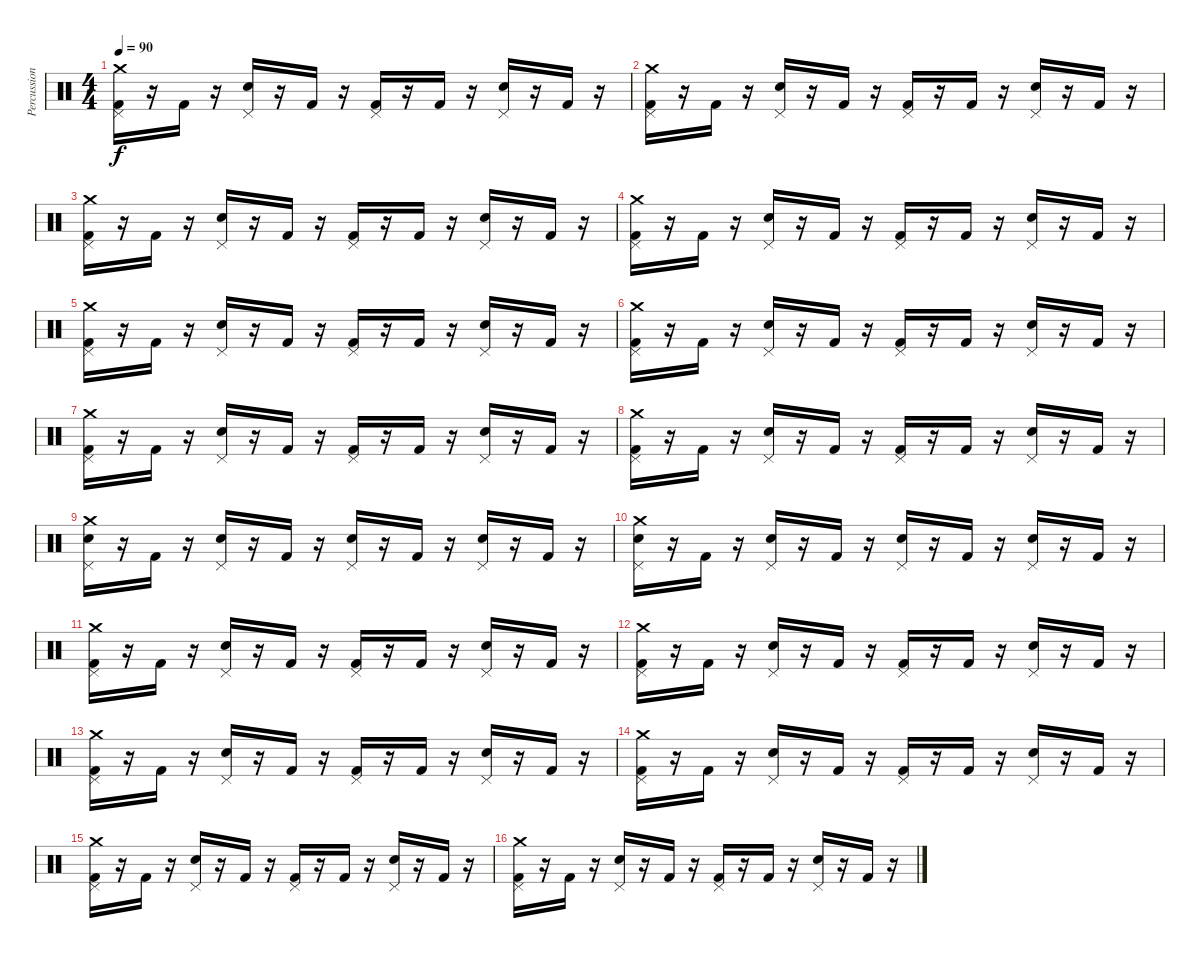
\track ("Percussion" "Percussion") {instrument percussion}
\staff {score}
\articulation defaults
\ts (4 4)
\tempo 90
\clef neutral
\ks c
("Crash medium (hit)" "Pedal Hi-Hat (hit)" "Kick (hit) 2").16{dy f} r.16 "Kick (hit) 2".16 r.16 ("Pedal Hi-Hat (hit)" "Snare (hit) 2").16 r.16 "Kick (hit) 2".16 r.16 ("Pedal Hi-Hat (hit)" "Kick (hit) 2").16 r.16 "Kick (hit) 2".16 r.16 ("Pedal Hi-Hat (hit)" "Snare (hit) 2").16 r.16 "Kick (hit) 2".16 r.16 |
("Crash medium (hit)" "Pedal Hi-Hat (hit)" "Kick (hit) 2").16 r.16 "Kick (hit) 2".16 r.16 ("Pedal Hi-Hat (hit)" "Snare (hit) 2").16 r.16 "Kick (hit) 2".16 r.16 ("Pedal Hi-Hat (hit)" "Kick (hit) 2").16 r.16 "Kick (hit) 2".16 r.16 ("Pedal Hi-Hat (hit)" "Snare (hit) 2").16 r.16 "Kick (hit) 2".16 r.16 |
("Crash medium (hit)" "Pedal Hi-Hat (hit)" "Kick (hit) 2").16 r.16 "Kick (hit) 2".16 r.16 ("Pedal Hi-Hat (hit)" "Snare (hit) 2").16 r.16 "Kick (hit) 2".16 r.16 ("Pedal Hi-Hat (hit)" "Kick (hit) 2").16 r.16 "Kick (hit) 2".16 r.16 ("Pedal Hi-Hat (hit)" "Snare (hit) 2").16 r.16 "Kick (hit) 2".16 r.16 |
("Crash medium (hit)" "Pedal Hi-Hat (hit)" "Kick (hit) 2").16 r.16 "Kick (hit) 2".16 r.16 ("Pedal Hi-Hat (hit)" "Snare (hit) 2").16 r.16 "Kick (hit) 2".16 r.16 ("Pedal Hi-Hat (hit)" "Kick (hit) 2").16 r.16 "Kick (hit) 2".16 r.16 ("Pedal Hi-Hat (hit)" "Snare (hit) 2").16 r.16 "Kick (hit) 2".16 r.16 |
("Crash medium (hit)" "Pedal Hi-Hat (hit)" "Kick (hit) 2").16 r.16 "Kick (hit) 2".16 r.16 ("Pedal Hi-Hat (hit)" "Snare (hit) 2").16 r.16 "Kick (hit) 2".16 r.16 ("Pedal Hi-Hat (hit)" "Kick (hit) 2").16 r.16 "Kick (hit) 2".16 r.16 ("Pedal Hi-Hat (hit)" "Snare (hit) 2").16 r.16 "Kick (hit) 2".16 r.16 |
("Crash medium (hit)" "Pedal Hi-Hat (hit)" "Kick (hit) 2").16 r.16 "Kick (hit) 2".16 r.16 ("Pedal Hi-Hat (hit)" "Snare (hit) 2").16 r.16 "Kick (hit) 2".16 r.16 ("Pedal Hi-Hat (hit)" "Kick (hit) 2").16 r.16 "Kick (hit) 2".16 r.16 ("Pedal Hi-Hat (hit)" "Snare (hit) 2").16 r.16 "Kick (hit) 2".16 r.16 |
("Crash medium (hit)" "Pedal Hi-Hat (hit)" "Kick (hit) 2").16 r.16 "Kick (hit) 2".16 r.16 ("Pedal Hi-Hat (hit)" "Snare (hit) 2").16 r.16 "Kick (hit) 2".16 r.16 ("Pedal Hi-Hat (hit)" "Kick (hit) 2").16 r.16 "Kick (hit) 2".16 r.16 ("Pedal Hi-Hat (hit)" "Snare (hit) 2").16 r.16 "Kick (hit) 2".16 r.16 |
("Crash medium (hit)" "Pedal Hi-Hat (hit)" "Kick (hit) 2").16 r.16 "Kick (hit) 2".16 r.16 ("Pedal Hi-Hat (hit)" "Snare (hit) 2").16 r.16 "Kick (hit) 2".16 r.16 ("Pedal Hi-Hat (hit)" "Kick (hit) 2").16 r.16 "Kick (hit) 2".16 r.16 ("Pedal Hi-Hat (hit)" "Snare (hit) 2").16 r.16 "Kick (hit) 2".16 r.16 |
("Crash medium (hit)" "Pedal Hi-Hat (hit)" "Snare (hit) 2").16 r.16 "Kick (hit) 2".16 r.16 ("Pedal Hi-Hat (hit)" "Snare (hit) 2").16 r.16 "Kick (hit) 2".16 r.16 ("Pedal Hi-Hat (hit)" "Snare (hit) 2").16 r.16 "Kick (hit) 2".16 r.16 ("Pedal Hi-Hat (hit)" "Snare (hit) 2").16 r.16 "Kick (hit) 2".16 r.16 |
("Crash medium (hit)" "Pedal Hi-Hat (hit)" "Snare (hit) 2").16 r.16 "Kick (hit) 2".16 r.16 ("Pedal Hi-Hat (hit)" "Snare (hit) 2").16 r.16 "Kick (hit) 2".16 r.16 ("Pedal Hi-Hat (hit)" "Snare (hit) 2").16 r.16 "Kick (hit) 2".16 r.16 ("Pedal Hi-Hat (hit)" "Snare (hit) 2").16 r.16 "Kick (hit) 2".16 r.16 |
("Crash medium (hit)" "Pedal Hi-Hat (hit)" "Kick (hit) 2").16 r.16 "Kick (hit) 2".16 r.16 ("Pedal Hi-Hat (hit)" "Snare (hit) 2").16 r.16 "Kick (hit) 2".16 r.16 ("Pedal Hi-Hat (hit)" "Kick (hit) 2").16 r.16 "Kick (hit) 2".16 r.16 ("Pedal Hi-Hat (hit)" "Snare (hit) 2").16 r.16 "Kick (hit) 2".16 r.16 |
("Crash medium (hit)" "Pedal Hi-Hat (hit)" "Kick (hit) 2").16 r.16 "Kick (hit) 2".16 r.16 ("Pedal Hi-Hat (hit)" "Snare (hit) 2").16 r.16 "Kick (hit) 2".16 r.16 ("Pedal Hi-Hat (hit)" "Kick (hit) 2").16 r.16 "Kick (hit) 2".16 r.16 ("Pedal Hi-Hat (hit)" "Snare (hit) 2").16 r.16 "Kick (hit) 2".16 r.16 |
("Crash medium (hit)" "Pedal Hi-Hat (hit)" "Kick (hit) 2").16 r.16 "Kick (hit) 2".16 r.16 ("Pedal Hi-Hat (hit)" "Snare (hit) 2").16 r.16 "Kick (hit) 2".16 r.16 ("Pedal Hi-Hat (hit)" "Kick (hit) 2").16 r.16 "Kick (hit) 2".16 r.16 ("Pedal Hi-Hat (hit)" "Snare (hit) 2").16 r.16 "Kick (hit) 2".16 r.16 |
("Crash medium (hit)" "Pedal Hi-Hat (hit)" "Kick (hit) 2").16 r.16 "Kick (hit) 2".16 r.16 ("Pedal Hi-Hat (hit)" "Snare (hit) 2").16 r.16 "Kick (hit) 2".16 r.16 ("Pedal Hi-Hat (hit)" "Kick (hit) 2").16 r.16 "Kick (hit) 2".16 r.16 ("Pedal Hi-Hat (hit)" "Snare (hit) 2").16 r.16 "Kick (hit) 2".16 r.16 |
("Crash medium (hit)" "Pedal Hi-Hat (hit)" "Kick (hit) 2").16 r.16 "Kick (hit) 2".16 r.16 ("Pedal Hi-Hat (hit)" "Snare (hit) 2").16 r.16 "Kick (hit) 2".16 r.16 ("Pedal Hi-Hat (hit)" "Kick (hit) 2").16 r.16 "Kick (hit) 2".16 r.16 ("Pedal Hi-Hat (hit)" "Snare (hit) 2").16 r.16 "Kick (hit) 2".16 r.16 |
("Crash medium (hit)" "Pedal Hi-Hat (hit)" "Kick (hit) 2").16 r.16 "Kick (hit) 2".16 r.16 ("Pedal Hi-Hat (hit)" "Snare (hit) 2").16 r.16 "Kick (hit) 2".16 r.16 ("Pedal Hi-Hat (hit)" "Kick (hit) 2").16 r.16 "Kick (hit) 2".16 r.16 ("Pedal Hi-Hat (hit)" "Snare (hit) 2").16 r.16 "Kick (hit) 2".16 r.16
